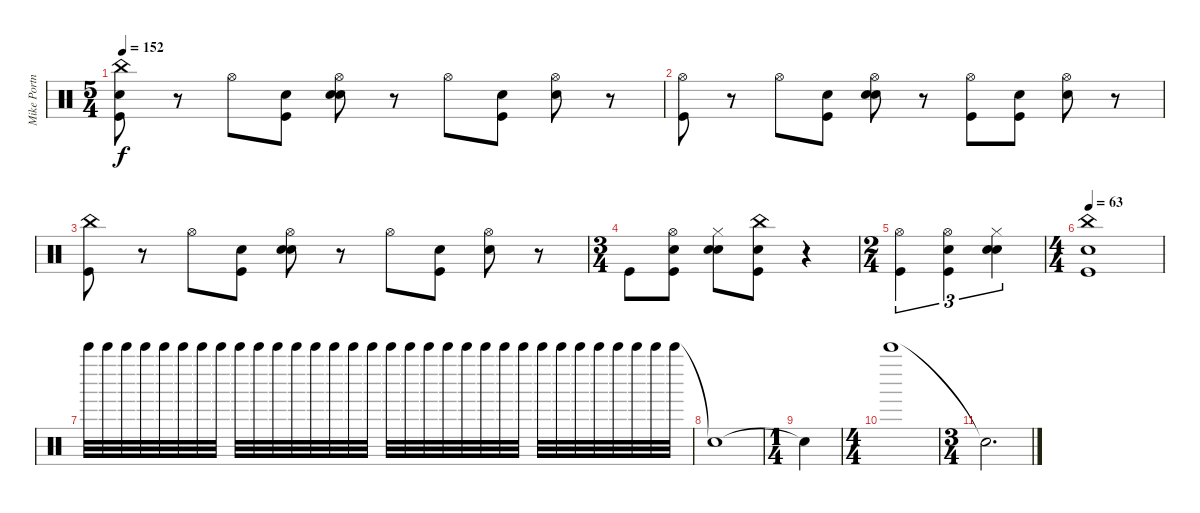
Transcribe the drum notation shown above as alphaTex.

\track ("Mike Portnoy" "Mike Portn") {instrument percussion}
\staff {score}
\articulation defaults
\ts (5 4)
\tempo 152
\clef neutral
\ks c
("Snare (hit)" "Kick (hit)" "China (hit)").8{dy f} r.8 "Hi-Hat (open)".8 ("Snare (hit)" "Kick (hit)").8 ("Snare (hit)" "Snare (hit) 2" "Hi-Hat (open)").8 r.8 "Hi-Hat (open)".8 ("Snare (hit)" "Kick (hit)").8 ("Snare (hit)" "Hi-Hat (open)").8 r.8 |
("Kick (hit)" "Hi-Hat (open)").8 r.8 "Hi-Hat (open)".8 ("Snare (hit)" "Kick (hit)").8 ("Snare (hit)" "Snare (hit) 2" "Hi-Hat (open)").8 r.8 ("Kick (hit)" "Hi-Hat (open)").8 ("Snare (hit)" "Kick (hit)").8 ("Snare (hit)" "Hi-Hat (open)").8 r.8 |
("Kick (hit)" "China (hit)").8 r.8 "Hi-Hat (open)".8 ("Snare (hit)" "Kick (hit)").8 ("Snare (hit)" "Snare (hit) 2" "Hi-Hat (open)").8 r.8 "Hi-Hat (open)".8 ("Snare (hit)" "Kick (hit)").8 ("Snare (hit)" "Hi-Hat (open)").8 r.8 |
\ts (3 4)
"Kick (hit)".8 ("Snare (hit)" "Kick (hit)" "Hi-Hat (open)").8 ("Snare (hit)" "Snare (hit) 2" "Hi-Hat (closed)").8 ("Snare (hit)" "Kick (hit)" "China (hit)").8 r.4 |
\ts (2 4)
("Kick (hit)" "Hi-Hat (open)").4{tu (3 2)} ("Snare (hit)" "Kick (hit)" "Hi-Hat (open)").4{tu (3 2)} ("Snare (hit)" "Snare (hit) 2" "Hi-Hat (closed)").4{tu (3 2)} |
\ts (4 4)
\tempo 63
("Snare (hit)" "Kick (hit)" "China (hit)").1 |
"Bell Tree (hit)".32 "Bell Tree (hit)".32 "Bell Tree (hit)".32 "Bell Tree (hit)".32 "Bell Tree (hit)".32 "Bell Tree (hit)".32 "Bell Tree (hit)".32 "Bell Tree (hit)".32 "Bell Tree (hit)".32 "Bell Tree (hit)".32 "Bell Tree (hit)".32 "Bell Tree (hit)".32 "Bell Tree (hit)".32 "Bell Tree (hit)".32 "Bell Tree (hit)".32 "Bell Tree (hit)".32 "Bell Tree (hit)".32 "Bell Tree (hit)".32 "Bell Tree (hit)".32 "Bell Tree (hit)".32 "Bell Tree (hit)".32 "Bell Tree (hit)".32 "Bell Tree (hit)".32 "Bell Tree (hit)".32 "Bell Tree (hit)".32 "Bell Tree (hit)".32 "Bell Tree (hit)".32 "Bell Tree (hit)".32 "Bell Tree (hit)".32 "Bell Tree (hit)".32 "Bell Tree (hit)".32 "Bell Tree (hit)".32 |
"Snare (hit)"{t}.1 |
\ts (1 4)
"Snare (hit)"{t}.4 |
\ts (4 4)
"Bell Tree (hit)".1 |
\ts (3 4)
"Snare (hit)"{t}.2{d}
